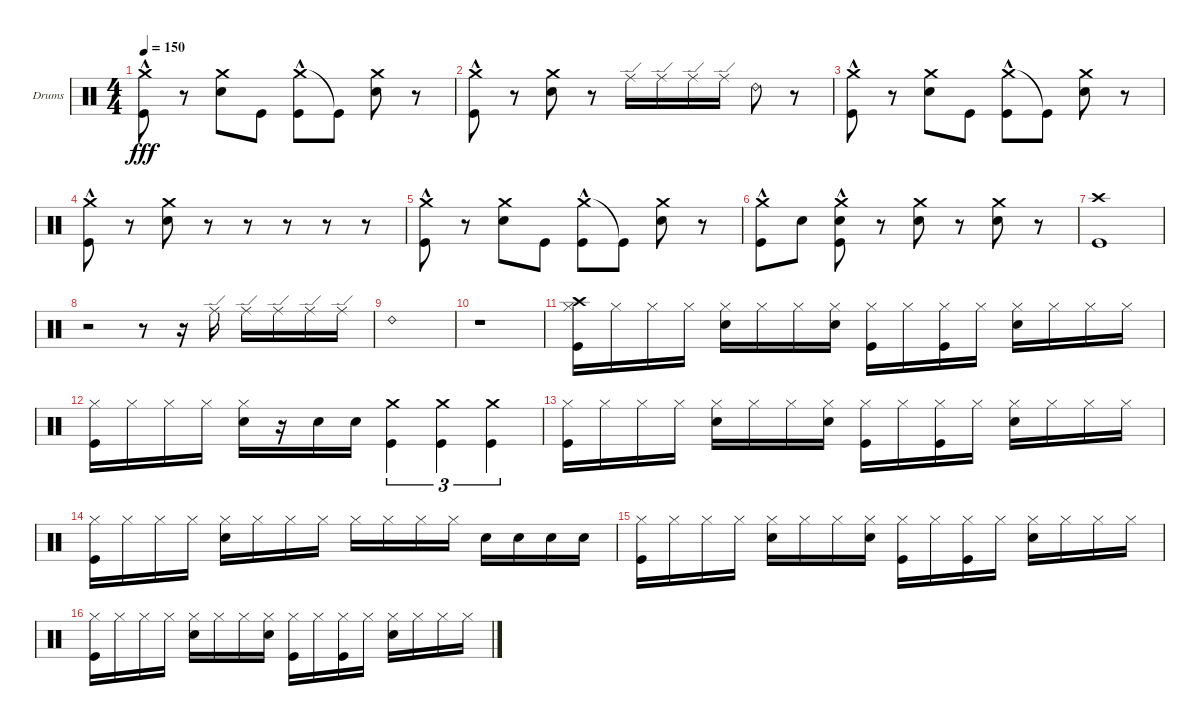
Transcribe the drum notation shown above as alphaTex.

\defaultSystemsLayout 4
\bracketExtendMode groupsimilarinstruments
\firstSystemTrackNameOrientation horizontal
\otherSystemsTrackNameOrientation horizontal
\track ("Matt Helders" "Drums") {instrument percussion}
\staff {score}
\articulation defaults
\ts (4 4)
\tempo 150
\clef neutral
\ks c
("Crash medium (hit)" "Kick (hit)"{hac}).8{dy fff} r.8 ("Crash medium (hit)" "Snare (hit) 2").8 "Kick (hit)".8 ("Crash medium (hit)" "Kick (hit)"{hac}).8 "Kick (hit)"{t}.8 ("Crash medium (hit)" "Snare (hit) 2").8 r.8 |
("Crash medium (hit)" "Kick (hit)"{hac}).8 r.8 ("Crash medium (hit)" "Snare (hit) 2").8 r.8 "Ride (edge)".16 "Ride (edge)".16 "Ride (edge)".16 "Ride (edge)".16 "Ride (bell) 2".8 r.8 |
("Crash medium (hit)" "Kick (hit)"{hac}).8 r.8 ("Crash medium (hit)" "Snare (hit) 2").8 "Kick (hit)".8 ("Crash medium (hit)" "Kick (hit)"{hac}).8 "Kick (hit)"{t}.8 ("Crash medium (hit)" "Snare (hit) 2").8 r.8 |
("Crash medium (hit)" "Kick (hit)"{hac}).8 r.8 ("Crash medium (hit)" "Snare (hit) 2").8 r.8 r.8 r.8 r.8 r.8 |
("Crash medium (hit)" "Kick (hit)"{hac}).8 r.8 ("Crash medium (hit)" "Snare (hit) 2").8 "Kick (hit)".8 ("Crash medium (hit)" "Kick (hit)"{hac}).8 "Kick (hit)"{t}.8 ("Crash medium (hit)" "Snare (hit) 2").8 r.8 |
("Crash medium (hit)" "Kick (hit)"{hac}).8 "Snare (hit) 2".8 ("Crash medium (hit)" "Snare (hit) 2" "Kick (hit)"{hac}).8 r.8 ("Crash medium (hit)" "Snare (hit) 2").8 r.8 ("Crash medium (hit)" "Snare (hit) 2").8 r.8 |
("Crash high (hit)" "Kick (hit)").1 |
r.2 r.8 r.16 "Ride (edge)".16 "Ride (edge)".16 "Ride (edge)".16 "Ride (edge)".16 "Ride (edge)".16 |
"Ride (bell) 2".1 |
r.1 |
("Hi-Hat (closed)" "Crash high (hit)" "Kick (hit)").16 "Hi-Hat (closed)".16 "Hi-Hat (closed)".16 "Hi-Hat (closed)".16 ("Hi-Hat (closed)" "Snare (hit) 2").16 "Hi-Hat (closed)".16 "Hi-Hat (closed)".16 ("Hi-Hat (closed)" "Snare (hit) 2").16 ("Hi-Hat (closed)" "Kick (hit)").16 "Hi-Hat (closed)".16 ("Hi-Hat (closed)" "Kick (hit)").16 "Hi-Hat (closed)".16 ("Hi-Hat (closed)" "Snare (hit) 2").16 "Hi-Hat (closed)".16 "Hi-Hat (closed)".16 "Hi-Hat (closed)".16 |
("Hi-Hat (closed)" "Kick (hit)").16 "Hi-Hat (closed)".16 "Hi-Hat (closed)".16 "Hi-Hat (closed)".16 ("Hi-Hat (closed)" "Snare (hit) 2").16 r.16 "Snare (hit) 2".16 "Snare (hit) 2".16 ("Kick (hit)" "Crash medium (hit)").4{tu (3 2)} ("Kick (hit)" "Crash medium (hit)").4{tu (3 2)} ("Kick (hit)" "Crash medium (hit)").4{tu (3 2)} |
("Hi-Hat (closed)" "Kick (hit)").16 "Hi-Hat (closed)".16 "Hi-Hat (closed)".16 "Hi-Hat (closed)".16 ("Hi-Hat (closed)" "Snare (hit) 2").16 "Hi-Hat (closed)".16 "Hi-Hat (closed)".16 ("Hi-Hat (closed)" "Snare (hit) 2").16 ("Hi-Hat (closed)" "Kick (hit)").16 "Hi-Hat (closed)".16 ("Hi-Hat (closed)" "Kick (hit)").16 "Hi-Hat (closed)".16 ("Hi-Hat (closed)" "Snare (hit) 2").16 "Hi-Hat (closed)".16 "Hi-Hat (closed)".16 "Hi-Hat (closed)".16 |
("Hi-Hat (closed)" "Kick (hit)").16 "Hi-Hat (closed)".16 "Hi-Hat (closed)".16 "Hi-Hat (closed)".16 ("Hi-Hat (closed)" "Snare (hit) 2").16 "Hi-Hat (closed)".16 "Hi-Hat (closed)".16 "Hi-Hat (closed)".16 "Hi-Hat (closed)".16 "Hi-Hat (closed)".16 "Hi-Hat (closed)".16 "Hi-Hat (closed)".16 "Snare (hit) 2".16 "Snare (hit) 2".16 "Snare (hit) 2".16 "Snare (hit) 2".16 |
("Hi-Hat (closed)" "Kick (hit)").16 "Hi-Hat (closed)".16 "Hi-Hat (closed)".16 "Hi-Hat (closed)".16 ("Hi-Hat (closed)" "Snare (hit) 2").16 "Hi-Hat (closed)".16 "Hi-Hat (closed)".16 ("Hi-Hat (closed)" "Snare (hit) 2").16 ("Hi-Hat (closed)" "Kick (hit)").16 "Hi-Hat (closed)".16 ("Hi-Hat (closed)" "Kick (hit)").16 "Hi-Hat (closed)".16 ("Hi-Hat (closed)" "Snare (hit) 2").16 "Hi-Hat (closed)".16 "Hi-Hat (closed)".16 "Hi-Hat (closed)".16 |
("Hi-Hat (closed)" "Kick (hit)").16 "Hi-Hat (closed)".16 "Hi-Hat (closed)".16 "Hi-Hat (closed)".16 ("Hi-Hat (closed)" "Snare (hit) 2").16 "Hi-Hat (closed)".16 "Hi-Hat (closed)".16 ("Hi-Hat (closed)" "Snare (hit) 2").16 ("Hi-Hat (closed)" "Kick (hit)").16 "Hi-Hat (closed)".16 ("Hi-Hat (closed)" "Kick (hit)").16 "Hi-Hat (closed)".16 ("Hi-Hat (closed)" "Snare (hit) 2").16 "Hi-Hat (closed)".16 "Hi-Hat (closed)".16 "Hi-Hat (closed)".16
